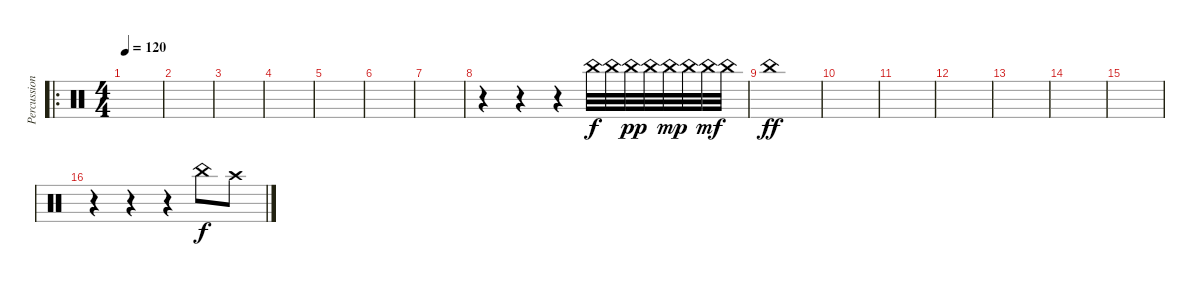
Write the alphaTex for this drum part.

\track ("Percussions" "Percussion") {instrument percussion}
\staff {score}
\articulation defaults
\ro
\ts (4 4)
\tempo 120
\clef neutral
\ks c
|
|
|
|
|
|
|
r.4 r.4 r.4 "China (hit)".32 "China (hit)".32 "China (hit)".32{dy pp} "China (hit)".32 "China (hit)".32{dy mp} "China (hit)".32 "China (hit)".32{dy mf} "China (hit)".32 |
"China (hit)".1{dy ff} |
|
|
|
|
|
|
r.4 r.4 r.4 "China (hit)".8{dy f} "Crash high (hit)".8
